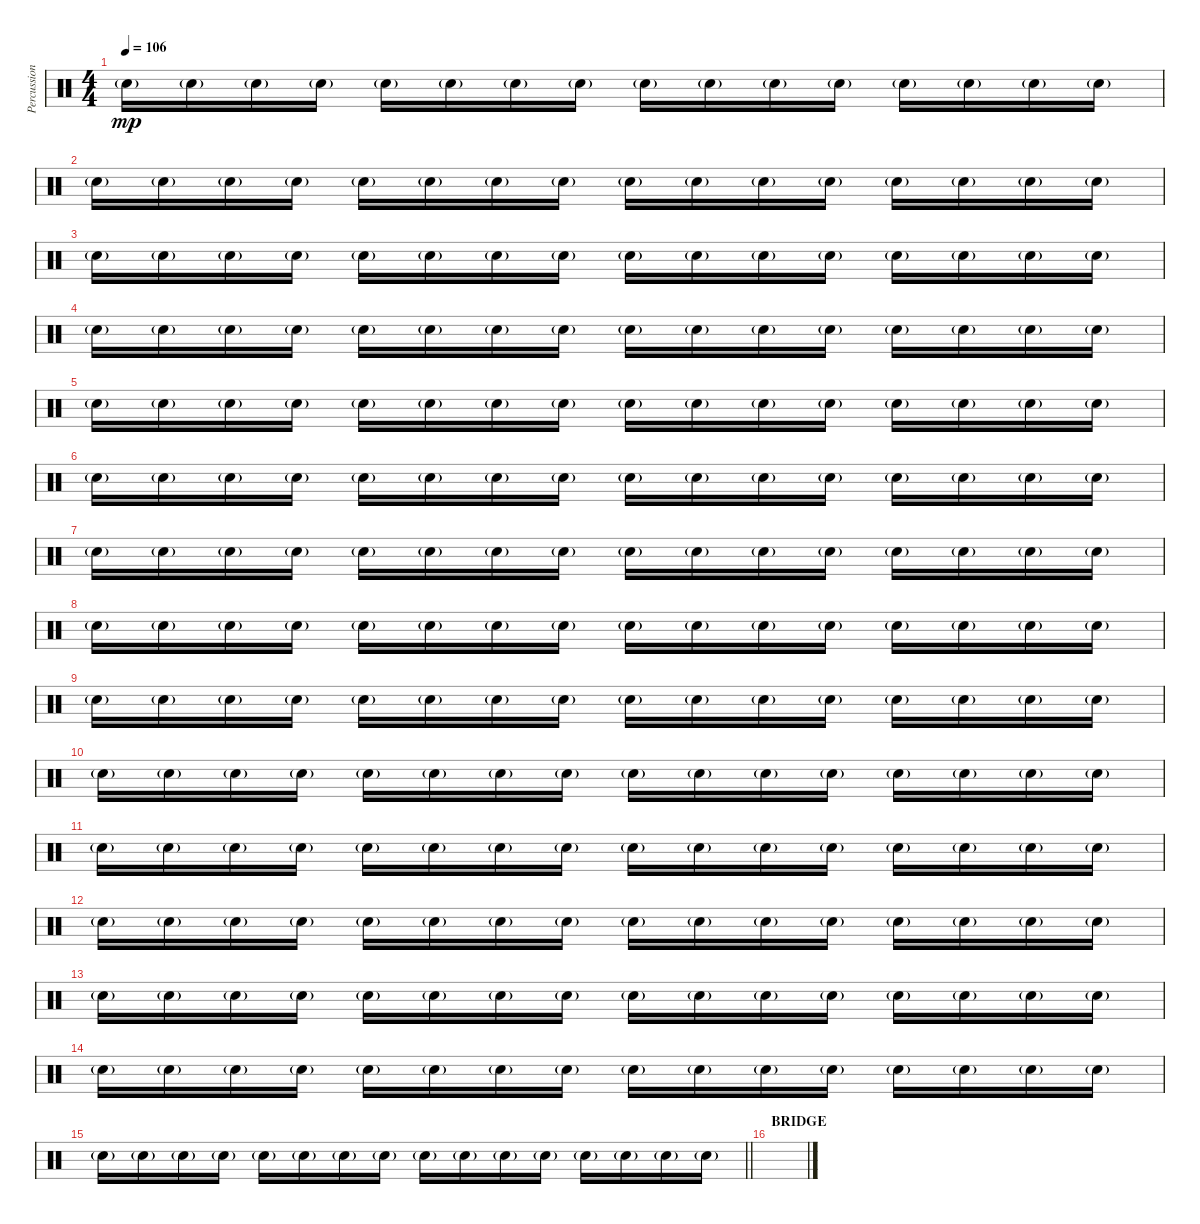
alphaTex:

\track ("Percussion" "Percussion") {instrument percussion}
\staff {score}
\articulation defaults
\ts (4 4)
\tempo 106
\clef neutral
\ks c "Electric Snare (hit)"{g}.16{dy mp} "Electric Snare (hit)"{g}.16 "Electric Snare (hit)"{g}.16 "Electric Snare (hit)"{g}.16 "Electric Snare (hit)"{g}.16 "Electric Snare (hit)"{g}.16 "Electric Snare (hit)"{g}.16 "Electric Snare (hit)"{g}.16 "Electric Snare (hit)"{g}.16 "Electric Snare (hit)"{g}.16 "Electric Snare (hit)"{g}.16 "Electric Snare (hit)"{g}.16 "Electric Snare (hit)"{g}.16 "Electric Snare (hit)"{g}.16 "Electric Snare (hit)"{g}.16 "Electric Snare (hit)"{g}.16
|
"Electric Snare (hit)"{g}.16 "Electric Snare (hit)"{g}.16 "Electric Snare (hit)"{g}.16 "Electric Snare (hit)"{g}.16 "Electric Snare (hit)"{g}.16 "Electric Snare (hit)"{g}.16 "Electric Snare (hit)"{g}.16 "Electric Snare (hit)"{g}.16 "Electric Snare (hit)"{g}.16 "Electric Snare (hit)"{g}.16 "Electric Snare (hit)"{g}.16 "Electric Snare (hit)"{g}.16 "Electric Snare (hit)"{g}.16 "Electric Snare (hit)"{g}.16 "Electric Snare (hit)"{g}.16 "Electric Snare (hit)"{g}.16 |
"Electric Snare (hit)"{g}.16 "Electric Snare (hit)"{g}.16 "Electric Snare (hit)"{g}.16 "Electric Snare (hit)"{g}.16 "Electric Snare (hit)"{g}.16 "Electric Snare (hit)"{g}.16 "Electric Snare (hit)"{g}.16 "Electric Snare (hit)"{g}.16 "Electric Snare (hit)"{g}.16 "Electric Snare (hit)"{g}.16 "Electric Snare (hit)"{g}.16 "Electric Snare (hit)"{g}.16 "Electric Snare (hit)"{g}.16 "Electric Snare (hit)"{g}.16 "Electric Snare (hit)"{g}.16 "Electric Snare (hit)"{g}.16 |
"Electric Snare (hit)"{g}.16 "Electric Snare (hit)"{g}.16 "Electric Snare (hit)"{g}.16 "Electric Snare (hit)"{g}.16 "Electric Snare (hit)"{g}.16 "Electric Snare (hit)"{g}.16 "Electric Snare (hit)"{g}.16 "Electric Snare (hit)"{g}.16 "Electric Snare (hit)"{g}.16 "Electric Snare (hit)"{g}.16 "Electric Snare (hit)"{g}.16 "Electric Snare (hit)"{g}.16 "Electric Snare (hit)"{g}.16 "Electric Snare (hit)"{g}.16 "Electric Snare (hit)"{g}.16 "Electric Snare (hit)"{g}.16 |
"Electric Snare (hit)"{g}.16 "Electric Snare (hit)"{g}.16 "Electric Snare (hit)"{g}.16 "Electric Snare (hit)"{g}.16 "Electric Snare (hit)"{g}.16 "Electric Snare (hit)"{g}.16 "Electric Snare (hit)"{g}.16 "Electric Snare (hit)"{g}.16 "Electric Snare (hit)"{g}.16 "Electric Snare (hit)"{g}.16 "Electric Snare (hit)"{g}.16 "Electric Snare (hit)"{g}.16 "Electric Snare (hit)"{g}.16 "Electric Snare (hit)"{g}.16 "Electric Snare (hit)"{g}.16 "Electric Snare (hit)"{g}.16 |
"Electric Snare (hit)"{g}.16 "Electric Snare (hit)"{g}.16 "Electric Snare (hit)"{g}.16 "Electric Snare (hit)"{g}.16 "Electric Snare (hit)"{g}.16 "Electric Snare (hit)"{g}.16 "Electric Snare (hit)"{g}.16 "Electric Snare (hit)"{g}.16 "Electric Snare (hit)"{g}.16 "Electric Snare (hit)"{g}.16 "Electric Snare (hit)"{g}.16 "Electric Snare (hit)"{g}.16 "Electric Snare (hit)"{g}.16 "Electric Snare (hit)"{g}.16 "Electric Snare (hit)"{g}.16 "Electric Snare (hit)"{g}.16 |
"Electric Snare (hit)"{g}.16 "Electric Snare (hit)"{g}.16 "Electric Snare (hit)"{g}.16 "Electric Snare (hit)"{g}.16 "Electric Snare (hit)"{g}.16 "Electric Snare (hit)"{g}.16 "Electric Snare (hit)"{g}.16 "Electric Snare (hit)"{g}.16 "Electric Snare (hit)"{g}.16 "Electric Snare (hit)"{g}.16 "Electric Snare (hit)"{g}.16 "Electric Snare (hit)"{g}.16 "Electric Snare (hit)"{g}.16 "Electric Snare (hit)"{g}.16 "Electric Snare (hit)"{g}.16 "Electric Snare (hit)"{g}.16 |
"Electric Snare (hit)"{g}.16 "Electric Snare (hit)"{g}.16 "Electric Snare (hit)"{g}.16 "Electric Snare (hit)"{g}.16 "Electric Snare (hit)"{g}.16 "Electric Snare (hit)"{g}.16 "Electric Snare (hit)"{g}.16 "Electric Snare (hit)"{g}.16 "Electric Snare (hit)"{g}.16 "Electric Snare (hit)"{g}.16 "Electric Snare (hit)"{g}.16 "Electric Snare (hit)"{g}.16 "Electric Snare (hit)"{g}.16 "Electric Snare (hit)"{g}.16 "Electric Snare (hit)"{g}.16 "Electric Snare (hit)"{g}.16 |
"Electric Snare (hit)"{g}.16 "Electric Snare (hit)"{g}.16 "Electric Snare (hit)"{g}.16 "Electric Snare (hit)"{g}.16 "Electric Snare (hit)"{g}.16 "Electric Snare (hit)"{g}.16 "Electric Snare (hit)"{g}.16 "Electric Snare (hit)"{g}.16 "Electric Snare (hit)"{g}.16 "Electric Snare (hit)"{g}.16 "Electric Snare (hit)"{g}.16 "Electric Snare (hit)"{g}.16 "Electric Snare (hit)"{g}.16 "Electric Snare (hit)"{g}.16 "Electric Snare (hit)"{g}.16 "Electric Snare (hit)"{g}.16 |
"Electric Snare (hit)"{g}.16 "Electric Snare (hit)"{g}.16 "Electric Snare (hit)"{g}.16 "Electric Snare (hit)"{g}.16 "Electric Snare (hit)"{g}.16 "Electric Snare (hit)"{g}.16 "Electric Snare (hit)"{g}.16 "Electric Snare (hit)"{g}.16 "Electric Snare (hit)"{g}.16 "Electric Snare (hit)"{g}.16 "Electric Snare (hit)"{g}.16 "Electric Snare (hit)"{g}.16 "Electric Snare (hit)"{g}.16 "Electric Snare (hit)"{g}.16 "Electric Snare (hit)"{g}.16 "Electric Snare (hit)"{g}.16 |
"Electric Snare (hit)"{g}.16 "Electric Snare (hit)"{g}.16 "Electric Snare (hit)"{g}.16 "Electric Snare (hit)"{g}.16 "Electric Snare (hit)"{g}.16 "Electric Snare (hit)"{g}.16 "Electric Snare (hit)"{g}.16 "Electric Snare (hit)"{g}.16 "Electric Snare (hit)"{g}.16 "Electric Snare (hit)"{g}.16 "Electric Snare (hit)"{g}.16 "Electric Snare (hit)"{g}.16 "Electric Snare (hit)"{g}.16 "Electric Snare (hit)"{g}.16 "Electric Snare (hit)"{g}.16 "Electric Snare (hit)"{g}.16 |
"Electric Snare (hit)"{g}.16 "Electric Snare (hit)"{g}.16 "Electric Snare (hit)"{g}.16 "Electric Snare (hit)"{g}.16 "Electric Snare (hit)"{g}.16 "Electric Snare (hit)"{g}.16 "Electric Snare (hit)"{g}.16 "Electric Snare (hit)"{g}.16 "Electric Snare (hit)"{g}.16 "Electric Snare (hit)"{g}.16 "Electric Snare (hit)"{g}.16 "Electric Snare (hit)"{g}.16 "Electric Snare (hit)"{g}.16 "Electric Snare (hit)"{g}.16 "Electric Snare (hit)"{g}.16 "Electric Snare (hit)"{g}.16 |
"Electric Snare (hit)"{g}.16 "Electric Snare (hit)"{g}.16 "Electric Snare (hit)"{g}.16 "Electric Snare (hit)"{g}.16 "Electric Snare (hit)"{g}.16 "Electric Snare (hit)"{g}.16 "Electric Snare (hit)"{g}.16 "Electric Snare (hit)"{g}.16 "Electric Snare (hit)"{g}.16 "Electric Snare (hit)"{g}.16 "Electric Snare (hit)"{g}.16 "Electric Snare (hit)"{g}.16 "Electric Snare (hit)"{g}.16 "Electric Snare (hit)"{g}.16 "Electric Snare (hit)"{g}.16 "Electric Snare (hit)"{g}.16 |
"Electric Snare (hit)"{g}.16 "Electric Snare (hit)"{g}.16 "Electric Snare (hit)"{g}.16 "Electric Snare (hit)"{g}.16 "Electric Snare (hit)"{g}.16 "Electric Snare (hit)"{g}.16 "Electric Snare (hit)"{g}.16 "Electric Snare (hit)"{g}.16 "Electric Snare (hit)"{g}.16 "Electric Snare (hit)"{g}.16 "Electric Snare (hit)"{g}.16 "Electric Snare (hit)"{g}.16 "Electric Snare (hit)"{g}.16 "Electric Snare (hit)"{g}.16 "Electric Snare (hit)"{g}.16 "Electric Snare (hit)"{g}.16 |
\barLineRight lightlight "Electric Snare (hit)"{g}.16 "Electric Snare (hit)"{g}.16 "Electric Snare (hit)"{g}.16 "Electric Snare (hit)"{g}.16 "Electric Snare (hit)"{g}.16 "Electric Snare (hit)"{g}.16 "Electric Snare (hit)"{g}.16 "Electric Snare (hit)"{g}.16 "Electric Snare (hit)"{g}.16 "Electric Snare (hit)"{g}.16 "Electric Snare (hit)"{g}.16 "Electric Snare (hit)"{g}.16 "Electric Snare (hit)"{g}.16 "Electric Snare (hit)"{g}.16 "Electric Snare (hit)"{g}.16 "Electric Snare (hit)"{g}.16
|
\section ("" "BRIDGE")
